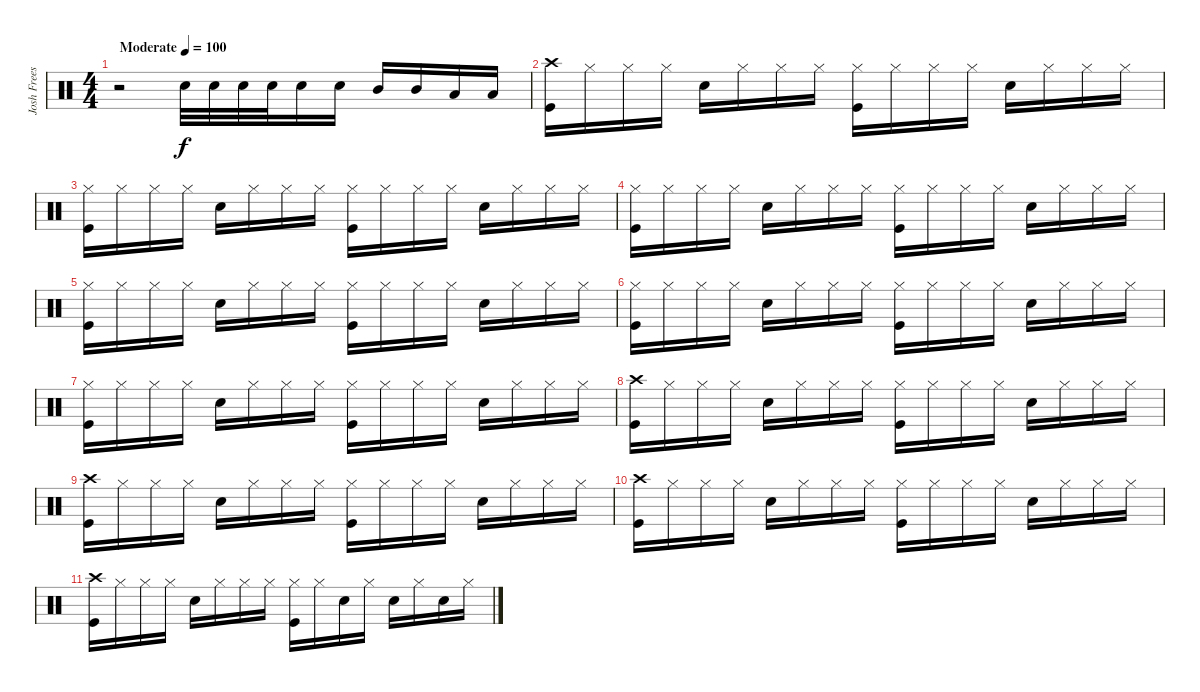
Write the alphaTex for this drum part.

\track ("Josh Freese" "Josh Frees") {instrument percussion}
\staff {score}
\articulation defaults
\ts (4 4)
\tempo (100 "Moderate")
\clef neutral
\ks c
r.2{dy f} "Snare (hit) 2".32 "Snare (hit) 2".32 "Snare (hit) 2".32 "Snare (hit) 2".32 "Snare (hit) 2".16 "Snare (hit) 2".16 "Mid Tom (hit)".16 "Mid Tom (hit)".16 "Low Tom (hit)".16 "Low Tom (hit)".16 |
("Crash high (hit)" "Kick (hit)").16 "Hi-Hat (closed)".16 "Hi-Hat (closed)".16 "Hi-Hat (closed)".16 "Snare (hit) 2".16 "Hi-Hat (closed)".16 "Hi-Hat (closed)".16 "Hi-Hat (closed)".16 ("Hi-Hat (closed)" "Kick (hit)").16 "Hi-Hat (closed)".16 "Hi-Hat (closed)".16 "Hi-Hat (closed)".16 "Snare (hit) 2".16 "Hi-Hat (closed)".16 "Hi-Hat (closed)".16 "Hi-Hat (closed)".16 |
("Hi-Hat (closed)" "Kick (hit)").16 "Hi-Hat (closed)".16 "Hi-Hat (closed)".16 "Hi-Hat (closed)".16 "Snare (hit) 2".16 "Hi-Hat (closed)".16 "Hi-Hat (closed)".16 "Hi-Hat (closed)".16 ("Hi-Hat (closed)" "Kick (hit)").16 "Hi-Hat (closed)".16 "Hi-Hat (closed)".16 "Hi-Hat (closed)".16 "Snare (hit) 2".16 "Hi-Hat (closed)".16 "Hi-Hat (closed)".16 "Hi-Hat (closed)".16 |
("Hi-Hat (closed)" "Kick (hit)").16 "Hi-Hat (closed)".16 "Hi-Hat (closed)".16 "Hi-Hat (closed)".16 "Snare (hit) 2".16 "Hi-Hat (closed)".16 "Hi-Hat (closed)".16 "Hi-Hat (closed)".16 ("Hi-Hat (closed)" "Kick (hit)").16 "Hi-Hat (closed)".16 "Hi-Hat (closed)".16 "Hi-Hat (closed)".16 "Snare (hit) 2".16 "Hi-Hat (closed)".16 "Hi-Hat (closed)".16 "Hi-Hat (closed)".16 |
("Hi-Hat (closed)" "Kick (hit)").16 "Hi-Hat (closed)".16 "Hi-Hat (closed)".16 "Hi-Hat (closed)".16 "Snare (hit) 2".16 "Hi-Hat (closed)".16 "Hi-Hat (closed)".16 "Hi-Hat (closed)".16 ("Hi-Hat (closed)" "Kick (hit)").16 "Hi-Hat (closed)".16 "Hi-Hat (closed)".16 "Hi-Hat (closed)".16 "Snare (hit) 2".16 "Hi-Hat (closed)".16 "Hi-Hat (closed)".16 "Hi-Hat (closed)".16 |
("Hi-Hat (closed)" "Kick (hit)").16 "Hi-Hat (closed)".16 "Hi-Hat (closed)".16 "Hi-Hat (closed)".16 "Snare (hit) 2".16 "Hi-Hat (closed)".16 "Hi-Hat (closed)".16 "Hi-Hat (closed)".16 ("Hi-Hat (closed)" "Kick (hit)").16 "Hi-Hat (closed)".16 "Hi-Hat (closed)".16 "Hi-Hat (closed)".16 "Snare (hit) 2".16 "Hi-Hat (closed)".16 "Hi-Hat (closed)".16 "Hi-Hat (closed)".16 |
("Hi-Hat (closed)" "Kick (hit)").16 "Hi-Hat (closed)".16 "Hi-Hat (closed)".16 "Hi-Hat (closed)".16 "Snare (hit) 2".16 "Hi-Hat (closed)".16 "Hi-Hat (closed)".16 "Hi-Hat (closed)".16 ("Hi-Hat (closed)" "Kick (hit)").16 "Hi-Hat (closed)".16 "Hi-Hat (closed)".16 "Hi-Hat (closed)".16 "Snare (hit) 2".16 "Hi-Hat (closed)".16 "Hi-Hat (closed)".16 "Hi-Hat (closed)".16 |
("Crash high (hit)" "Kick (hit)").16 "Hi-Hat (closed)".16 "Hi-Hat (closed)".16 "Hi-Hat (closed)".16 "Snare (hit) 2".16 "Hi-Hat (closed)".16 "Hi-Hat (closed)".16 "Hi-Hat (closed)".16 ("Hi-Hat (closed)" "Kick (hit)").16 "Hi-Hat (closed)".16 "Hi-Hat (closed)".16 "Hi-Hat (closed)".16 "Snare (hit) 2".16 "Hi-Hat (closed)".16 "Hi-Hat (closed)".16 "Hi-Hat (closed)".16 |
("Crash high (hit)" "Kick (hit)").16 "Hi-Hat (closed)".16 "Hi-Hat (closed)".16 "Hi-Hat (closed)".16 "Snare (hit) 2".16 "Hi-Hat (closed)".16 "Hi-Hat (closed)".16 "Hi-Hat (closed)".16 ("Hi-Hat (closed)" "Kick (hit)").16 "Hi-Hat (closed)".16 "Hi-Hat (closed)".16 "Hi-Hat (closed)".16 "Snare (hit) 2".16 "Hi-Hat (closed)".16 "Hi-Hat (closed)".16 "Hi-Hat (closed)".16 |
("Crash high (hit)" "Kick (hit)").16 "Hi-Hat (closed)".16 "Hi-Hat (closed)".16 "Hi-Hat (closed)".16 "Snare (hit) 2".16 "Hi-Hat (closed)".16 "Hi-Hat (closed)".16 "Hi-Hat (closed)".16 ("Hi-Hat (closed)" "Kick (hit)").16 "Hi-Hat (closed)".16 "Hi-Hat (closed)".16 "Hi-Hat (closed)".16 "Snare (hit) 2".16 "Hi-Hat (closed)".16 "Hi-Hat (closed)".16 "Hi-Hat (closed)".16 |
("Crash high (hit)" "Kick (hit)").16 "Hi-Hat (closed)".16 "Hi-Hat (closed)".16 "Hi-Hat (closed)".16 "Snare (hit) 2".16 "Hi-Hat (closed)".16 "Hi-Hat (closed)".16 "Hi-Hat (closed)".16 ("Hi-Hat (closed)" "Kick (hit)").16 "Hi-Hat (closed)".16 "Snare (hit) 2".16 "Hi-Hat (closed)".16 "Snare (hit) 2".16 "Hi-Hat (closed)".16 "Snare (hit) 2".16 "Hi-Hat (closed)".16
